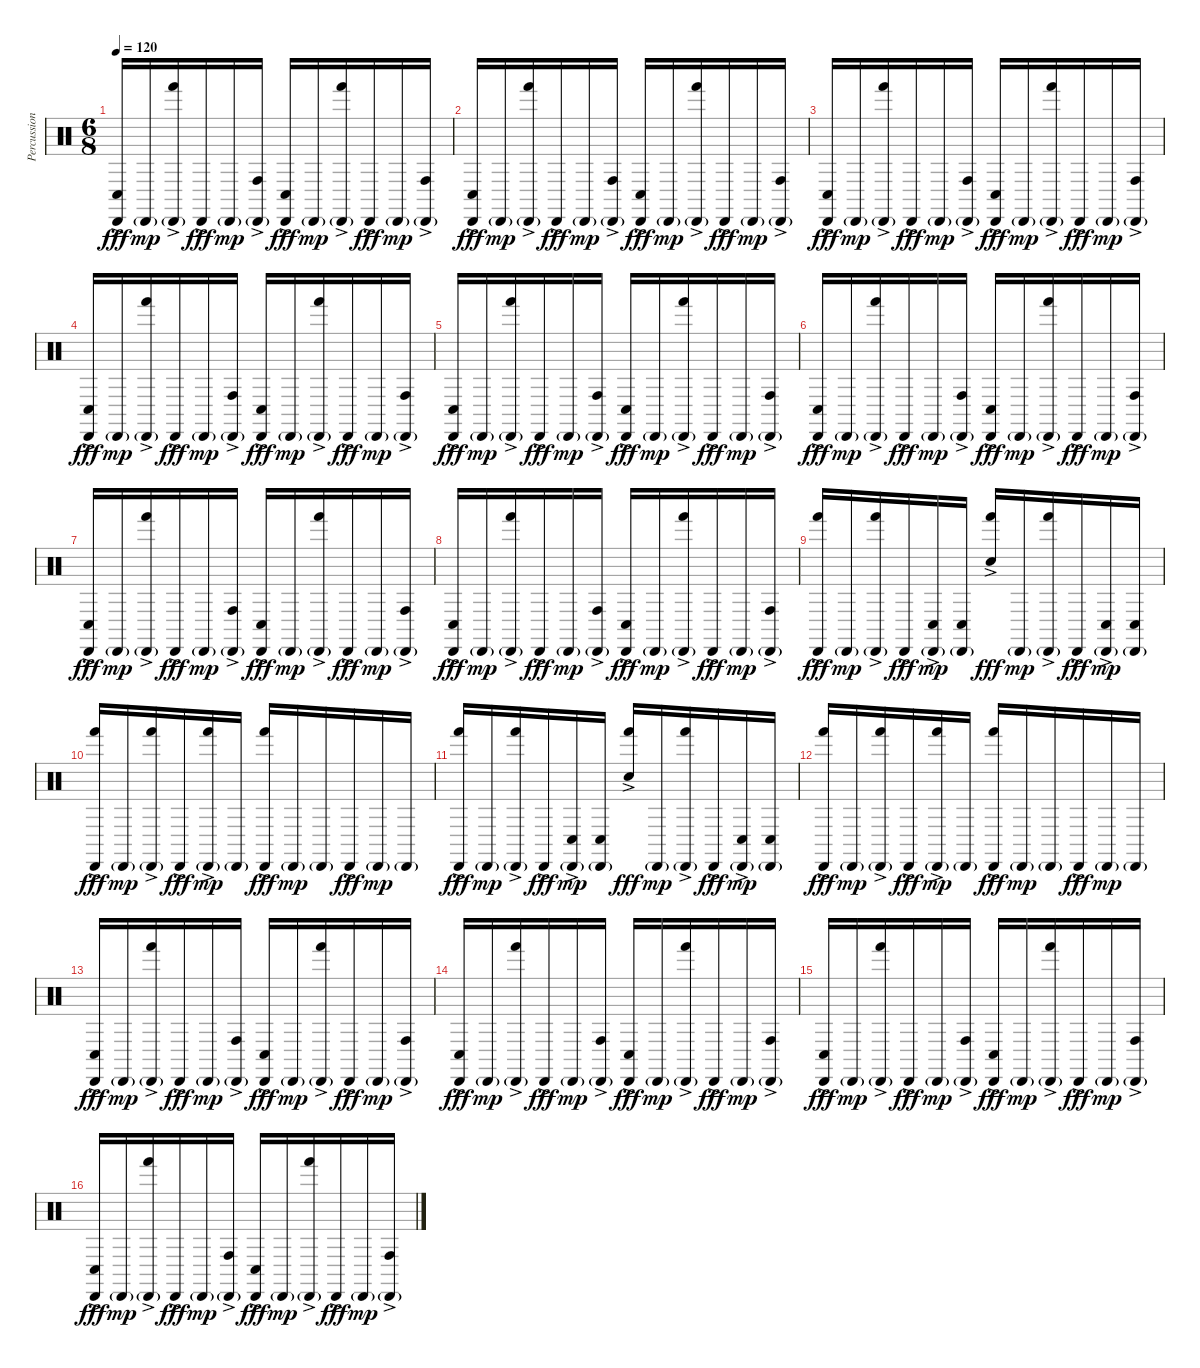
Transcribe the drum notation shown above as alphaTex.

\track ("Percussion" "Percussion") {instrument percussion}
\staff {score}
\articulation defaults
\ts (6 8)
\tempo 120
\clef neutral
\ks c
("Conga low (hit)"{ac} "Cabasa (hit)"{ac}).16{dy fff} "Cabasa (hit)"{g}.16{dy mp} ("Hand (hit)"{ac} "Cabasa (hit)"{g}).16 "Cabasa (hit)"{ac}.16{dy fff} "Cabasa (hit)"{g}.16{dy mp} ("Conga high (hit)"{ac} "Cabasa (hit)"{g}).16 ("Conga low (hit)"{ac} "Cabasa (hit)"{ac}).16{dy fff} "Cabasa (hit)"{g}.16{dy mp} ("Hand (hit)"{ac} "Cabasa (hit)"{g}).16 "Cabasa (hit)"{ac}.16{dy fff} "Cabasa (hit)"{g}.16{dy mp} ("Conga high (hit)"{ac} "Cabasa (hit)"{g}).16 |
("Conga low (hit)"{ac} "Cabasa (hit)"{ac}).16{dy fff} "Cabasa (hit)"{g}.16{dy mp} ("Hand (hit)"{ac} "Cabasa (hit)"{g}).16 "Cabasa (hit)"{ac}.16{dy fff} "Cabasa (hit)"{g}.16{dy mp} ("Conga high (hit)"{ac} "Cabasa (hit)"{g}).16 ("Conga low (hit)"{ac} "Cabasa (hit)"{ac}).16{dy fff} "Cabasa (hit)"{g}.16{dy mp} ("Hand (hit)"{ac} "Cabasa (hit)"{g}).16 "Cabasa (hit)"{ac}.16{dy fff} "Cabasa (hit)"{g}.16{dy mp} ("Conga high (hit)"{ac} "Cabasa (hit)"{g}).16 |
("Conga low (hit)"{ac} "Cabasa (hit)"{ac}).16{dy fff} "Cabasa (hit)"{g}.16{dy mp} ("Hand (hit)"{ac} "Cabasa (hit)"{g}).16 "Cabasa (hit)"{ac}.16{dy fff} "Cabasa (hit)"{g}.16{dy mp} ("Conga high (hit)"{ac} "Cabasa (hit)"{g}).16 ("Conga low (hit)"{ac} "Cabasa (hit)"{ac}).16{dy fff} "Cabasa (hit)"{g}.16{dy mp} ("Hand (hit)"{ac} "Cabasa (hit)"{g}).16 "Cabasa (hit)"{ac}.16{dy fff} "Cabasa (hit)"{g}.16{dy mp} ("Conga high (hit)"{ac} "Cabasa (hit)"{g}).16 |
("Conga low (hit)"{ac} "Cabasa (hit)"{ac}).16{dy fff} "Cabasa (hit)"{g}.16{dy mp} ("Hand (hit)"{ac} "Cabasa (hit)"{g}).16 "Cabasa (hit)"{ac}.16{dy fff} "Cabasa (hit)"{g}.16{dy mp} ("Conga high (hit)"{ac} "Cabasa (hit)"{g}).16 ("Conga low (hit)"{ac} "Cabasa (hit)"{ac}).16{dy fff} "Cabasa (hit)"{g}.16{dy mp} ("Hand (hit)"{ac} "Cabasa (hit)"{g}).16 "Cabasa (hit)"{ac}.16{dy fff} "Cabasa (hit)"{g}.16{dy mp} ("Conga high (hit)"{ac} "Cabasa (hit)"{g}).16 |
("Conga low (hit)"{ac} "Cabasa (hit)"{ac}).16{dy fff} "Cabasa (hit)"{g}.16{dy mp} ("Hand (hit)"{ac} "Cabasa (hit)"{g}).16 "Cabasa (hit)"{ac}.16{dy fff} "Cabasa (hit)"{g}.16{dy mp} ("Conga high (hit)"{ac} "Cabasa (hit)"{g}).16 ("Conga low (hit)"{ac} "Cabasa (hit)"{ac}).16{dy fff} "Cabasa (hit)"{g}.16{dy mp} ("Hand (hit)"{ac} "Cabasa (hit)"{g}).16 "Cabasa (hit)"{ac}.16{dy fff} "Cabasa (hit)"{g}.16{dy mp} ("Conga high (hit)"{ac} "Cabasa (hit)"{g}).16 |
("Conga low (hit)"{ac} "Cabasa (hit)"{ac}).16{dy fff} "Cabasa (hit)"{g}.16{dy mp} ("Hand (hit)"{ac} "Cabasa (hit)"{g}).16 "Cabasa (hit)"{ac}.16{dy fff} "Cabasa (hit)"{g}.16{dy mp} ("Conga high (hit)"{ac} "Cabasa (hit)"{g}).16 ("Conga low (hit)"{ac} "Cabasa (hit)"{ac}).16{dy fff} "Cabasa (hit)"{g}.16{dy mp} ("Hand (hit)"{ac} "Cabasa (hit)"{g}).16 "Cabasa (hit)"{ac}.16{dy fff} "Cabasa (hit)"{g}.16{dy mp} ("Conga high (hit)"{ac} "Cabasa (hit)"{g}).16 |
("Conga low (hit)"{ac} "Cabasa (hit)"{ac}).16{dy fff} "Cabasa (hit)"{g}.16{dy mp} ("Hand (hit)"{ac} "Cabasa (hit)"{g}).16 "Cabasa (hit)"{ac}.16{dy fff} "Cabasa (hit)"{g}.16{dy mp} ("Conga high (hit)"{ac} "Cabasa (hit)"{g}).16 ("Conga low (hit)"{ac} "Cabasa (hit)"{ac}).16{dy fff} "Cabasa (hit)"{g}.16{dy mp} ("Hand (hit)"{ac} "Cabasa (hit)"{g}).16 "Cabasa (hit)"{ac}.16{dy fff} "Cabasa (hit)"{g}.16{dy mp} ("Conga high (hit)"{ac} "Cabasa (hit)"{g}).16 |
("Conga low (hit)"{ac} "Cabasa (hit)"{ac}).16{dy fff} "Cabasa (hit)"{g}.16{dy mp} ("Hand (hit)"{ac} "Cabasa (hit)"{g}).16 "Cabasa (hit)"{ac}.16{dy fff} "Cabasa (hit)"{g}.16{dy mp} ("Conga high (hit)"{ac} "Cabasa (hit)"{g}).16 ("Conga low (hit)"{ac} "Cabasa (hit)"{ac}).16{dy fff} "Cabasa (hit)"{g}.16{dy mp} ("Hand (hit)"{ac} "Cabasa (hit)"{g}).16 "Cabasa (hit)"{ac}.16{dy fff} "Cabasa (hit)"{g}.16{dy mp} ("Conga high (hit)"{ac} "Cabasa (hit)"{g}).16 |
("Hand (hit)"{ac} "Cabasa (hit)"{ac}).16{dy fff} "Cabasa (hit)"{g}.16{dy mp} ("Hand (hit)"{ac} "Cabasa (hit)"{g}).16 "Cabasa (hit)"{ac}.16{dy fff} ("Conga low (hit)"{ac} "Cabasa (hit)"{g}).16{dy mp} ("Conga low (hit)" "Cabasa (hit)"{g}).16 ("Hand (hit)"{ac} "Snare (hit)"{ac}).16{dy fff} "Cabasa (hit)"{g}.16{dy mp} ("Hand (hit)"{ac} "Cabasa (hit)"{g}).16 "Cabasa (hit)"{ac}.16{dy fff} ("Conga low (hit)"{ac} "Cabasa (hit)"{g}).16{dy mp} ("Conga low (hit)" "Cabasa (hit)"{g}).16 |
("Hand (hit)"{ac} "Cabasa (hit)"{ac}).16{dy fff} "Cabasa (hit)"{g}.16{dy mp} ("Hand (hit)"{ac} "Cabasa (hit)"{g}).16 "Cabasa (hit)"{ac}.16{dy fff} ("Hand (hit)"{ac} "Cabasa (hit)"{g}).16{dy mp} "Cabasa (hit)"{g}.16 ("Hand (hit)"{ac} "Cabasa (hit)"{ac}).16{dy fff} "Cabasa (hit)"{g}.16{dy mp} "Cabasa (hit)"{g}.16 "Cabasa (hit)"{ac}.16{dy fff} "Cabasa (hit)"{g}.16{dy mp} "Cabasa (hit)"{g}.16 |
("Hand (hit)"{ac} "Cabasa (hit)"{ac}).16{dy fff} "Cabasa (hit)"{g}.16{dy mp} ("Hand (hit)"{ac} "Cabasa (hit)"{g}).16 "Cabasa (hit)"{ac}.16{dy fff} ("Conga low (hit)"{ac} "Cabasa (hit)"{g}).16{dy mp} ("Conga low (hit)" "Cabasa (hit)"{g}).16 ("Hand (hit)"{ac} "Snare (hit)"{ac}).16{dy fff} "Cabasa (hit)"{g}.16{dy mp} ("Hand (hit)"{ac} "Cabasa (hit)"{g}).16 "Cabasa (hit)"{ac}.16{dy fff} ("Conga low (hit)"{ac} "Cabasa (hit)"{g}).16{dy mp} ("Conga low (hit)" "Cabasa (hit)"{g}).16 |
("Hand (hit)"{ac} "Cabasa (hit)"{ac}).16{dy fff} "Cabasa (hit)"{g}.16{dy mp} ("Hand (hit)"{ac} "Cabasa (hit)"{g}).16 "Cabasa (hit)"{ac}.16{dy fff} ("Hand (hit)"{ac} "Cabasa (hit)"{g}).16{dy mp} "Cabasa (hit)"{g}.16 ("Hand (hit)"{ac} "Cabasa (hit)"{ac}).16{dy fff} "Cabasa (hit)"{g}.16{dy mp} "Cabasa (hit)"{g}.16 "Cabasa (hit)"{ac}.16{dy fff} "Cabasa (hit)"{g}.16{dy mp} "Cabasa (hit)"{g}.16 |
("Conga low (hit)"{ac} "Cabasa (hit)"{ac}).16{dy fff} "Cabasa (hit)"{g}.16{dy mp} ("Hand (hit)"{ac} "Cabasa (hit)"{g}).16 "Cabasa (hit)"{ac}.16{dy fff} "Cabasa (hit)"{g}.16{dy mp} ("Conga high (hit)"{ac} "Cabasa (hit)"{g}).16 ("Conga low (hit)"{ac} "Cabasa (hit)"{ac}).16{dy fff} "Cabasa (hit)"{g}.16{dy mp} ("Hand (hit)"{ac} "Cabasa (hit)"{g}).16 "Cabasa (hit)"{ac}.16{dy fff} "Cabasa (hit)"{g}.16{dy mp} ("Conga high (hit)"{ac} "Cabasa (hit)"{g}).16 |
("Conga low (hit)"{ac} "Cabasa (hit)"{ac}).16{dy fff} "Cabasa (hit)"{g}.16{dy mp} ("Hand (hit)"{ac} "Cabasa (hit)"{g}).16 "Cabasa (hit)"{ac}.16{dy fff} "Cabasa (hit)"{g}.16{dy mp} ("Conga high (hit)"{ac} "Cabasa (hit)"{g}).16 ("Conga low (hit)"{ac} "Cabasa (hit)"{ac}).16{dy fff} "Cabasa (hit)"{g}.16{dy mp} ("Hand (hit)"{ac} "Cabasa (hit)"{g}).16 "Cabasa (hit)"{ac}.16{dy fff} "Cabasa (hit)"{g}.16{dy mp} ("Conga high (hit)"{ac} "Cabasa (hit)"{g}).16 |
("Conga low (hit)"{ac} "Cabasa (hit)"{ac}).16{dy fff} "Cabasa (hit)"{g}.16{dy mp} ("Hand (hit)"{ac} "Cabasa (hit)"{g}).16 "Cabasa (hit)"{ac}.16{dy fff} "Cabasa (hit)"{g}.16{dy mp} ("Conga high (hit)"{ac} "Cabasa (hit)"{g}).16 ("Conga low (hit)"{ac} "Cabasa (hit)"{ac}).16{dy fff} "Cabasa (hit)"{g}.16{dy mp} ("Hand (hit)"{ac} "Cabasa (hit)"{g}).16 "Cabasa (hit)"{ac}.16{dy fff} "Cabasa (hit)"{g}.16{dy mp} ("Conga high (hit)"{ac} "Cabasa (hit)"{g}).16 |
("Conga low (hit)"{ac} "Cabasa (hit)"{ac}).16{dy fff} "Cabasa (hit)"{g}.16{dy mp} ("Hand (hit)"{ac} "Cabasa (hit)"{g}).16 "Cabasa (hit)"{ac}.16{dy fff} "Cabasa (hit)"{g}.16{dy mp} ("Conga high (hit)"{ac} "Cabasa (hit)"{g}).16 ("Conga low (hit)"{ac} "Cabasa (hit)"{ac}).16{dy fff} "Cabasa (hit)"{g}.16{dy mp} ("Hand (hit)"{ac} "Cabasa (hit)"{g}).16 "Cabasa (hit)"{ac}.16{dy fff} "Cabasa (hit)"{g}.16{dy mp} ("Conga high (hit)"{ac} "Cabasa (hit)"{g}).16
